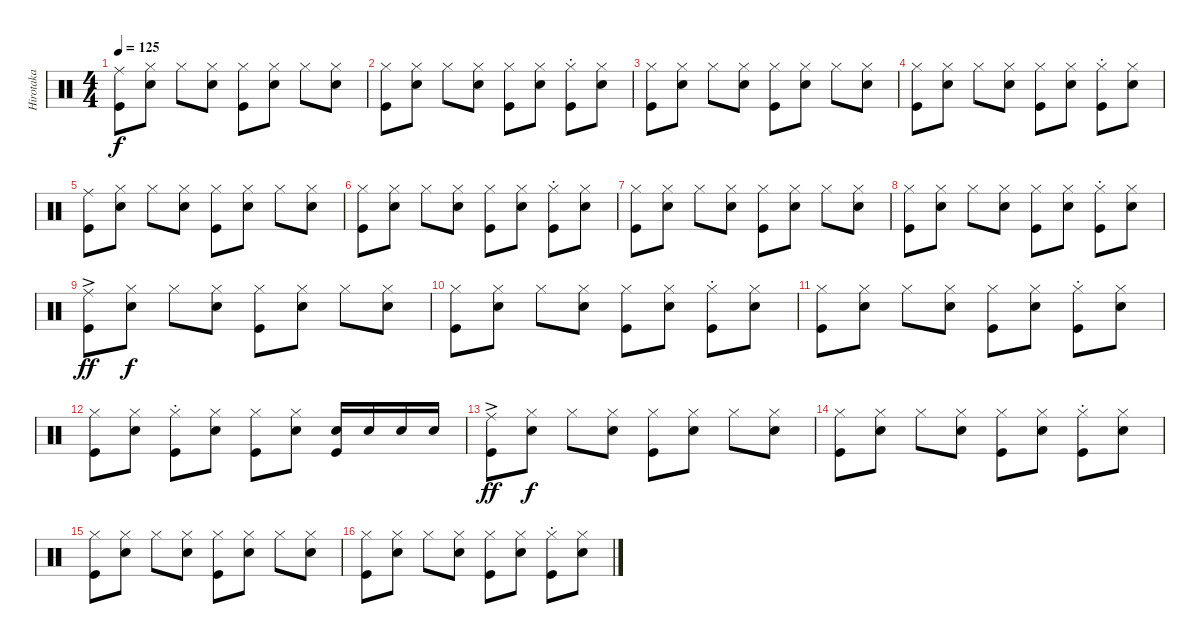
\track ("Hirotaka" "Hirotaka") {instrument percussion}
\staff {score}
\articulation defaults
\ts (4 4)
\tempo 125
\clef neutral
\ks c
("Ride (middle)" "Kick (hit)").8{dy f} ("Hi-Hat (closed)" "Snare (hit) 2").8 "Hi-Hat (closed)".8 ("Hi-Hat (closed)" "Snare (hit) 2").8 ("Hi-Hat (closed)" "Kick (hit)").8 ("Hi-Hat (closed)" "Snare (hit) 2").8 "Hi-Hat (closed)".8 ("Hi-Hat (closed)" "Snare (hit) 2").8 |
("Hi-Hat (closed)" "Kick (hit)").8 ("Hi-Hat (closed)" "Snare (hit) 2").8 "Hi-Hat (closed)".8 ("Hi-Hat (closed)" "Snare (hit) 2").8 ("Hi-Hat (closed)" "Kick (hit)").8 ("Hi-Hat (closed)" "Snare (hit) 2").8 ("Hi-Hat (closed)" "Kick (hit)"{st}).8 ("Hi-Hat (closed)" "Snare (hit) 2").8 |
("Hi-Hat (closed)" "Kick (hit)").8 ("Hi-Hat (closed)" "Snare (hit) 2").8 "Hi-Hat (closed)".8 ("Hi-Hat (closed)" "Snare (hit) 2").8 ("Hi-Hat (closed)" "Kick (hit)").8 ("Hi-Hat (closed)" "Snare (hit) 2").8 "Hi-Hat (closed)".8 ("Hi-Hat (closed)" "Snare (hit) 2").8 |
("Hi-Hat (closed)" "Kick (hit)").8 ("Hi-Hat (closed)" "Snare (hit) 2").8 "Hi-Hat (closed)".8 ("Hi-Hat (closed)" "Snare (hit) 2").8 ("Hi-Hat (closed)" "Kick (hit)").8 ("Hi-Hat (closed)" "Snare (hit) 2").8 ("Hi-Hat (closed)" "Kick (hit)"{st}).8 ("Hi-Hat (closed)" "Snare (hit) 2").8 |
("Ride (middle)" "Kick (hit)").8 ("Hi-Hat (closed)" "Snare (hit) 2").8 "Hi-Hat (closed)".8 ("Hi-Hat (closed)" "Snare (hit) 2").8 ("Hi-Hat (closed)" "Kick (hit)").8 ("Hi-Hat (closed)" "Snare (hit) 2").8 "Hi-Hat (closed)".8 ("Hi-Hat (closed)" "Snare (hit) 2").8 |
("Hi-Hat (closed)" "Kick (hit)").8 ("Hi-Hat (closed)" "Snare (hit) 2").8 "Hi-Hat (closed)".8 ("Hi-Hat (closed)" "Snare (hit) 2").8 ("Hi-Hat (closed)" "Kick (hit)").8 ("Hi-Hat (closed)" "Snare (hit) 2").8 ("Hi-Hat (closed)" "Kick (hit)"{st}).8 ("Hi-Hat (closed)" "Snare (hit) 2").8 |
("Hi-Hat (closed)" "Kick (hit)").8 ("Hi-Hat (closed)" "Snare (hit) 2").8 "Hi-Hat (closed)".8 ("Hi-Hat (closed)" "Snare (hit) 2").8 ("Hi-Hat (closed)" "Kick (hit)").8 ("Hi-Hat (closed)" "Snare (hit) 2").8 "Hi-Hat (closed)".8 ("Hi-Hat (closed)" "Snare (hit) 2").8 |
("Hi-Hat (closed)" "Kick (hit)").8 ("Hi-Hat (closed)" "Snare (hit) 2").8 "Hi-Hat (closed)".8 ("Hi-Hat (closed)" "Snare (hit) 2").8 ("Hi-Hat (closed)" "Kick (hit)").8 ("Hi-Hat (closed)" "Snare (hit) 2").8 ("Hi-Hat (closed)" "Kick (hit)"{st}).8 ("Hi-Hat (closed)" "Snare (hit) 2").8 |
("Ride (middle)"{ac} "Kick (hit)").8{dy ff} ("Hi-Hat (closed)" "Snare (hit) 2").8{dy f} "Hi-Hat (closed)".8 ("Hi-Hat (closed)" "Snare (hit) 2").8 ("Hi-Hat (closed)" "Kick (hit)").8 ("Hi-Hat (closed)" "Snare (hit) 2").8 "Hi-Hat (closed)".8 ("Hi-Hat (closed)" "Snare (hit) 2").8 |
("Hi-Hat (closed)" "Kick (hit)").8 ("Hi-Hat (closed)" "Snare (hit) 2").8 "Hi-Hat (closed)".8 ("Hi-Hat (closed)" "Snare (hit) 2").8 ("Hi-Hat (closed)" "Kick (hit)").8 ("Hi-Hat (closed)" "Snare (hit) 2").8 ("Hi-Hat (closed)" "Kick (hit)"{st}).8 ("Hi-Hat (closed)" "Snare (hit) 2").8 |
("Hi-Hat (closed)" "Kick (hit)").8 ("Hi-Hat (closed)" "Snare (hit) 2").8 "Hi-Hat (closed)".8 ("Hi-Hat (closed)" "Snare (hit) 2").8 ("Hi-Hat (closed)" "Kick (hit)").8 ("Hi-Hat (closed)" "Snare (hit) 2").8 ("Hi-Hat (closed)" "Kick (hit)"{st}).8 ("Hi-Hat (closed)" "Snare (hit) 2").8 |
("Hi-Hat (closed)" "Kick (hit)").8 ("Hi-Hat (closed)" "Snare (hit) 2").8 ("Hi-Hat (closed)" "Kick (hit)"{st}).8 ("Hi-Hat (closed)" "Snare (hit) 2").8 ("Hi-Hat (closed)" "Kick (hit)").8 ("Hi-Hat (closed)" "Snare (hit) 2").8 ("Snare (hit) 2" "Kick (hit)").16 "Snare (hit) 2".16 "Snare (hit) 2".16 "Snare (hit) 2".16 |
("Ride (middle)"{ac} "Kick (hit)").8{dy ff} ("Hi-Hat (closed)" "Snare (hit) 2").8{dy f} "Hi-Hat (closed)".8 ("Hi-Hat (closed)" "Snare (hit) 2").8 ("Hi-Hat (closed)" "Kick (hit)").8 ("Hi-Hat (closed)" "Snare (hit) 2").8 "Hi-Hat (closed)".8 ("Hi-Hat (closed)" "Snare (hit) 2").8 |
("Hi-Hat (closed)" "Kick (hit)").8 ("Hi-Hat (closed)" "Snare (hit) 2").8 "Hi-Hat (closed)".8 ("Hi-Hat (closed)" "Snare (hit) 2").8 ("Hi-Hat (closed)" "Kick (hit)").8 ("Hi-Hat (closed)" "Snare (hit) 2").8 ("Hi-Hat (closed)" "Kick (hit)"{st}).8 ("Hi-Hat (closed)" "Snare (hit) 2").8 |
("Hi-Hat (closed)" "Kick (hit)").8 ("Hi-Hat (closed)" "Snare (hit) 2").8 "Hi-Hat (closed)".8 ("Hi-Hat (closed)" "Snare (hit) 2").8 ("Hi-Hat (closed)" "Kick (hit)").8 ("Hi-Hat (closed)" "Snare (hit) 2").8 "Hi-Hat (closed)".8 ("Hi-Hat (closed)" "Snare (hit) 2").8 |
("Hi-Hat (closed)" "Kick (hit)").8 ("Hi-Hat (closed)" "Snare (hit) 2").8 "Hi-Hat (closed)".8 ("Hi-Hat (closed)" "Snare (hit) 2").8 ("Hi-Hat (closed)" "Kick (hit)").8 ("Hi-Hat (closed)" "Snare (hit) 2").8 ("Hi-Hat (closed)" "Kick (hit)"{st}).8 ("Hi-Hat (closed)" "Snare (hit) 2").8
